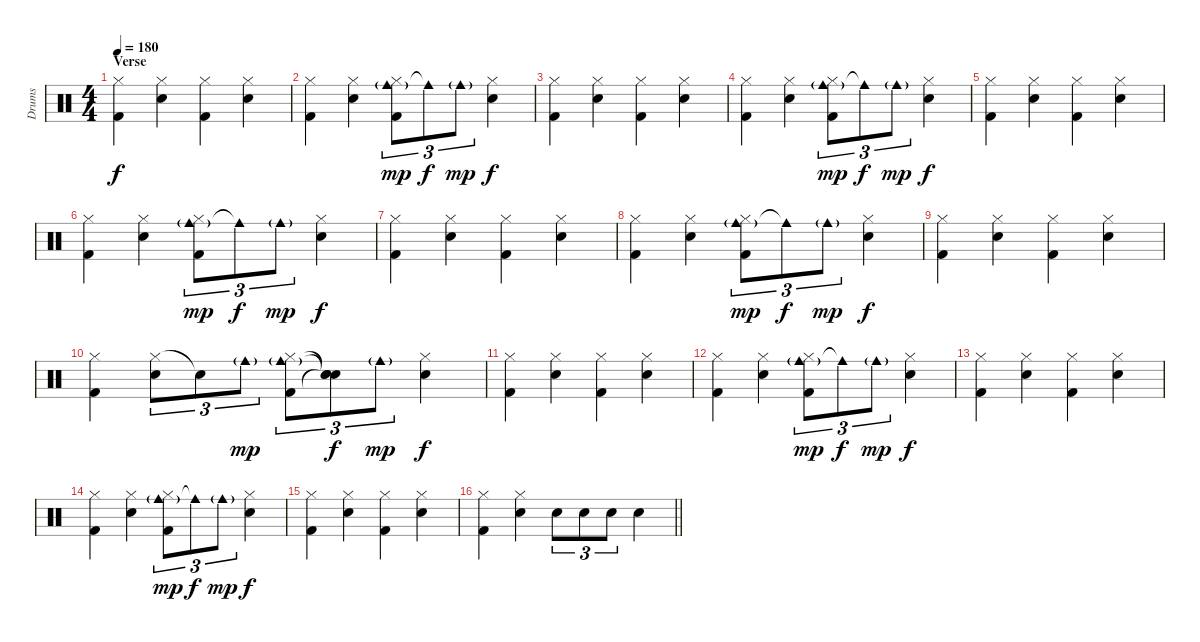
\track ("Drums" "Drums") {instrument percussion}
\staff {score}
\articulation defaults
\ts (4 4)
\section ("" "Verse")
\tempo 180
\clef neutral
\ks c
("Hi-Hat (closed)" "Kick (hit) 2").4{dy f} ("Hi-Hat (closed)" "Electric Snare (hit)").4 ("Hi-Hat (closed)" "Kick (hit) 2").4 ("Hi-Hat (closed)" "Electric Snare (hit)").4 |
("Hi-Hat (closed)" "Kick (hit) 2").4 ("Hi-Hat (closed)" "Electric Snare (hit)").4 ("Cowbell medium (hit)"{g} "Hi-Hat (closed)" "Kick (hit) 2").8{tu (3 2) dy mp} "Cowbell medium (hit)"{t}.8{tu (3 2) dy f} "Cowbell medium (hit)"{g}.8{tu (3 2) dy mp} ("Hi-Hat (closed)" "Electric Snare (hit)").4{dy f} |
("Hi-Hat (closed)" "Kick (hit) 2").4 ("Hi-Hat (closed)" "Electric Snare (hit)").4 ("Hi-Hat (closed)" "Kick (hit) 2").4 ("Hi-Hat (closed)" "Electric Snare (hit)").4 |
("Hi-Hat (closed)" "Kick (hit) 2").4 ("Hi-Hat (closed)" "Electric Snare (hit)").4 ("Cowbell medium (hit)"{g} "Hi-Hat (closed)" "Kick (hit) 2").8{tu (3 2) dy mp} "Cowbell medium (hit)"{t}.8{tu (3 2) dy f} "Cowbell medium (hit)"{g}.8{tu (3 2) dy mp} ("Hi-Hat (closed)" "Electric Snare (hit)").4{dy f} |
("Hi-Hat (closed)" "Kick (hit) 2").4 ("Hi-Hat (closed)" "Electric Snare (hit)").4 ("Hi-Hat (closed)" "Kick (hit) 2").4 ("Hi-Hat (closed)" "Electric Snare (hit)").4 |
("Hi-Hat (closed)" "Kick (hit) 2").4 ("Hi-Hat (closed)" "Electric Snare (hit)").4 ("Cowbell medium (hit)"{g} "Hi-Hat (closed)" "Kick (hit) 2").8{tu (3 2) dy mp} "Cowbell medium (hit)"{t}.8{tu (3 2) dy f} "Cowbell medium (hit)"{g}.8{tu (3 2) dy mp} ("Hi-Hat (closed)" "Electric Snare (hit)").4{dy f} |
("Hi-Hat (closed)" "Kick (hit) 2").4 ("Hi-Hat (closed)" "Electric Snare (hit)").4 ("Hi-Hat (closed)" "Kick (hit) 2").4 ("Hi-Hat (closed)" "Electric Snare (hit)").4 |
("Hi-Hat (closed)" "Kick (hit) 2").4 ("Hi-Hat (closed)" "Electric Snare (hit)").4 ("Cowbell medium (hit)"{g} "Hi-Hat (closed)" "Kick (hit) 2").8{tu (3 2) dy mp} "Cowbell medium (hit)"{t}.8{tu (3 2) dy f} "Cowbell medium (hit)"{g}.8{tu (3 2) dy mp} ("Hi-Hat (closed)" "Electric Snare (hit)").4{dy f} |
("Hi-Hat (closed)" "Kick (hit) 2").4 ("Hi-Hat (closed)" "Electric Snare (hit)").4 ("Hi-Hat (closed)" "Kick (hit) 2").4 ("Hi-Hat (closed)" "Electric Snare (hit)").4 |
("Hi-Hat (closed)" "Kick (hit) 2").4 ("Hi-Hat (closed)" "Electric Snare (hit)").8{tu (3 2)} "Snare (hit)"{t}.8{tu (3 2)} "Cowbell medium (hit)"{g}.8{tu (3 2) dy mp} ("Cowbell medium (hit)"{g} "Hi-Hat (closed)" "Kick (hit) 2").8{tu (3 2)} ("Snare (hit)"{t} "Snare (hit)"{t} "Snare (hit)"{t}).8{tu (3 2) dy f} "Cowbell medium (hit)"{g}.8{tu (3 2) dy mp} ("Hi-Hat (closed)" "Electric Snare (hit)").4{dy f} |
("Hi-Hat (closed)" "Kick (hit) 2").4 ("Hi-Hat (closed)" "Electric Snare (hit)").4 ("Hi-Hat (closed)" "Kick (hit) 2").4 ("Hi-Hat (closed)" "Electric Snare (hit)").4 |
("Hi-Hat (closed)" "Kick (hit) 2").4 ("Hi-Hat (closed)" "Electric Snare (hit)").4 ("Cowbell medium (hit)"{g} "Hi-Hat (closed)" "Kick (hit) 2").8{tu (3 2) dy mp} "Cowbell medium (hit)"{t}.8{tu (3 2) dy f} "Cowbell medium (hit)"{g}.8{tu (3 2) dy mp} ("Hi-Hat (closed)" "Electric Snare (hit)").4{dy f} |
("Hi-Hat (closed)" "Kick (hit) 2").4 ("Hi-Hat (closed)" "Electric Snare (hit)").4 ("Hi-Hat (closed)" "Kick (hit) 2").4 ("Hi-Hat (closed)" "Electric Snare (hit)").4 |
("Hi-Hat (closed)" "Kick (hit) 2").4 ("Hi-Hat (closed)" "Electric Snare (hit)").4 ("Cowbell medium (hit)"{g} "Hi-Hat (closed)" "Kick (hit) 2").8{tu (3 2) dy mp} "Cowbell medium (hit)"{t}.8{tu (3 2) dy f} "Cowbell medium (hit)"{g}.8{tu (3 2) dy mp} ("Hi-Hat (closed)" "Electric Snare (hit)").4{dy f} |
("Hi-Hat (closed)" "Kick (hit) 2").4 ("Hi-Hat (closed)" "Electric Snare (hit)").4 ("Hi-Hat (closed)" "Kick (hit) 2").4 ("Hi-Hat (closed)" "Electric Snare (hit)").4 |
\barLineRight lightlight
("Hi-Hat (closed)" "Kick (hit) 2").4 ("Hi-Hat (closed)" "Electric Snare (hit)").4 "Electric Snare (hit)".8{tu (3 2)} "Electric Snare (hit)".8{tu (3 2)} "Electric Snare (hit)".8{tu (3 2)} "Electric Snare (hit)".4
